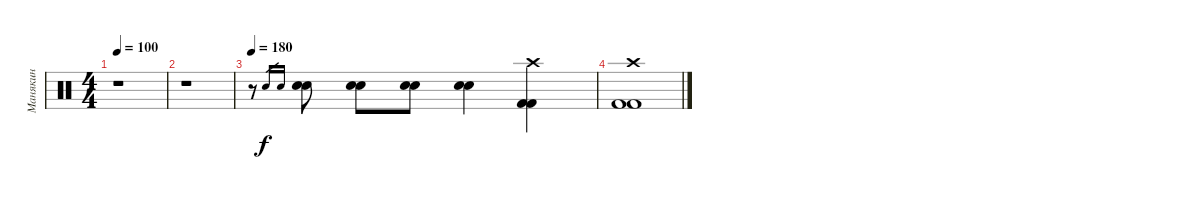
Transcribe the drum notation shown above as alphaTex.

\track ("Манякин" "Манякин") {instrument percussion}
\staff {score}
\articulation defaults
\ts (4 4)
\tempo 100
\clef neutral
\ks c
r.1{dy f} |
r.1 |
\tempo 180
r.8 "Electric Snare (hit)".16{gr} "Electric Snare (hit)".16{gr} ("Electric Snare (hit)" "Electric Snare (hit)").8 ("Electric Snare (hit)" "Electric Snare (hit)").8 ("Electric Snare (hit)" "Electric Snare (hit)").8 ("Electric Snare (hit)" "Electric Snare (hit)").4 ("Crash high (hit)" "Kick (hit) 2" "Kick (hit) 2").4 |
("Crash high (hit)" "Kick (hit) 2" "Kick (hit) 2").1
